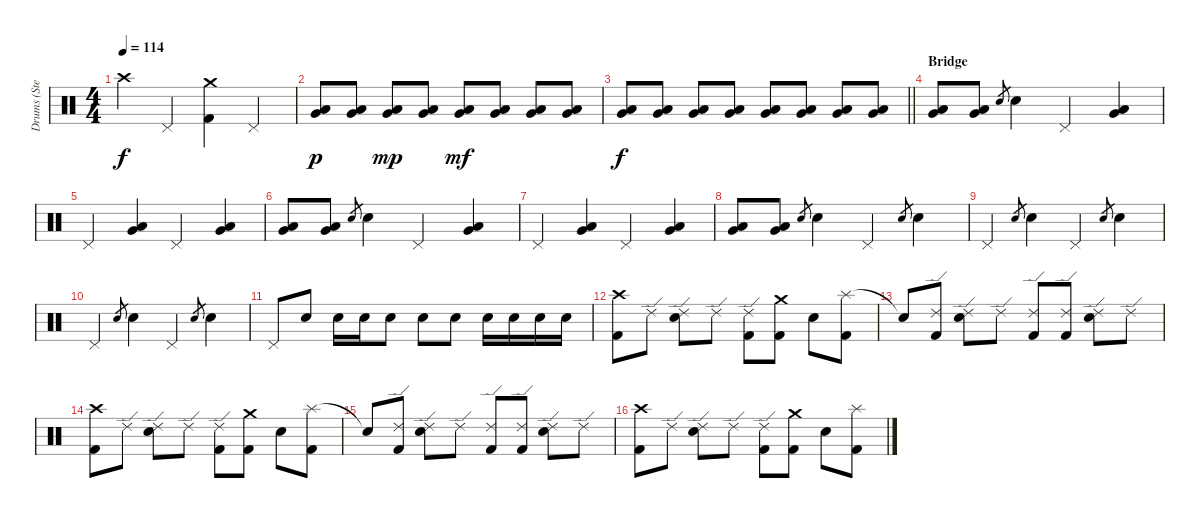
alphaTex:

\track ("Drums (Steven)" "Drums (Ste") {instrument percussion}
\staff {score}
\articulation defaults
\ts (4 4)
\tempo 114
\clef neutral
\ks c "Crash high (hit)"{t}.4{dy f} "Pedal Hi-Hat (hit)".4
("Crash medium (hit)" "Kick (hit) 2").4 "Pedal Hi-Hat (hit)".4 |
("Low Tom (hit)" "Very Low Tom (hit)").8{dy p} ("Low Tom (hit)" "Very Low Tom (hit)").8 ("Low Tom (hit)" "Very Low Tom (hit)").8{dy mp} ("Low Tom (hit)" "Very Low Tom (hit)").8 ("Low Tom (hit)" "Very Low Tom (hit)").8{dy mf} ("Low Tom (hit)" "Very Low Tom (hit)").8 ("Low Tom (hit)" "Very Low Tom (hit)").8 ("Low Tom (hit)" "Very Low Tom (hit)").8 |
\barLineRight lightlight
("Low Tom (hit)" "Very Low Tom (hit)").8{dy f} ("Low Tom (hit)" "Very Low Tom (hit)").8 ("Low Tom (hit)" "Very Low Tom (hit)").8 ("Low Tom (hit)" "Very Low Tom (hit)").8 ("Low Tom (hit)" "Very Low Tom (hit)").8 ("Low Tom (hit)" "Very Low Tom (hit)").8 ("Low Tom (hit)" "Very Low Tom (hit)").8 ("Low Tom (hit)" "Very Low Tom (hit)").8 |
\section ("" "Bridge")
("Low Tom (hit)" "Very Low Tom (hit)").8 ("Low Tom (hit)" "Very Low Tom (hit)").8 "Snare (hit) 2".8{gr} "Snare (hit) 2".4 "Pedal Hi-Hat (hit)".4 ("Low Floor Tom (hit)" "Very Low Tom (hit)").4 |
"Pedal Hi-Hat (hit)".4 ("Low Floor Tom (hit)" "Very Low Tom (hit)").4 "Pedal Hi-Hat (hit)".4 ("Low Floor Tom (hit)" "Very Low Tom (hit)").4 |
("Low Tom (hit)" "Very Low Tom (hit)").8 ("Low Tom (hit)" "Very Low Tom (hit)").8 "Snare (hit) 2".8{gr} "Snare (hit) 2".4 "Pedal Hi-Hat (hit)".4 ("Low Tom (hit)" "Very Low Tom (hit)").4 |
"Pedal Hi-Hat (hit)".4 ("Low Tom (hit)" "Very Low Tom (hit)").4 "Pedal Hi-Hat (hit)".4 ("Low Tom (hit)" "Very Low Tom (hit)").4 |
("Low Tom (hit)" "Very Low Tom (hit)").8 ("Low Tom (hit)" "Very Low Tom (hit)").8 "Snare (hit) 2".8{gr} "Snare (hit) 2".4 "Pedal Hi-Hat (hit)".4 "Snare (hit) 2".8{gr} "Snare (hit) 2".4 |
"Pedal Hi-Hat (hit)".4 "Snare (hit) 2".8{gr} "Snare (hit) 2".4 "Pedal Hi-Hat (hit)".4 "Snare (hit) 2".8{gr} "Snare (hit) 2".4 |
"Pedal Hi-Hat (hit)".4 "Snare (hit) 2".8{gr} "Snare (hit) 2".4 "Pedal Hi-Hat (hit)".4 "Snare (hit) 2".8{gr} "Snare (hit) 2".4 |
"Pedal Hi-Hat (hit)".8 "Snare (hit) 2".8 "Snare (hit) 2".16 "Snare (hit) 2".16 "Snare (hit) 2".8 "Snare (hit) 2".8 "Snare (hit) 2".8 "Snare (hit) 2".16 "Snare (hit) 2".16 "Snare (hit) 2".16 "Snare (hit) 2".16 |
("Crash high (hit)" "Kick (hit) 2").8 "Ride (edge) 2".8 ("Ride (edge) 2" "Snare (hit) 2").8 "Ride (edge) 2".8 ("Ride (edge) 2" "Kick (hit) 2").8 ("Crash medium (hit)" "Kick (hit) 2").8 "Snare (hit) 2".8 ("Splash (hit)" "Kick (hit) 2").8 |
"Snare (hit)"{t}.8 ("Ride (edge) 2" "Kick (hit) 2").8 ("Ride (edge) 2" "Snare (hit) 2").8 "Ride (edge) 2".8 ("Ride (edge) 2" "Kick (hit) 2").8 ("Ride (edge) 2" "Kick (hit) 2").8 ("Ride (edge) 2" "Snare (hit) 2").8 "Ride (edge) 2".8 |
("Crash high (hit)" "Kick (hit) 2").8 "Ride (edge) 2".8 ("Ride (edge) 2" "Snare (hit) 2").8 "Ride (edge) 2".8 ("Ride (edge) 2" "Kick (hit) 2").8 ("Crash medium (hit)" "Kick (hit) 2").8 "Snare (hit) 2".8 ("Splash (hit)" "Kick (hit) 2").8 |
"Snare (hit)"{t}.8 ("Ride (edge) 2" "Kick (hit) 2").8 ("Ride (edge) 2" "Snare (hit) 2").8 "Ride (edge) 2".8 ("Ride (edge) 2" "Kick (hit) 2").8 ("Ride (edge) 2" "Kick (hit) 2").8 ("Ride (edge) 2" "Snare (hit) 2").8 "Ride (edge) 2".8 |
("Crash high (hit)" "Kick (hit) 2").8 "Ride (edge) 2".8 ("Ride (edge) 2" "Snare (hit) 2").8 "Ride (edge) 2".8 ("Ride (edge) 2" "Kick (hit) 2").8 ("Crash medium (hit)" "Kick (hit) 2").8 "Snare (hit) 2".8 ("Splash (hit)" "Kick (hit) 2").8
